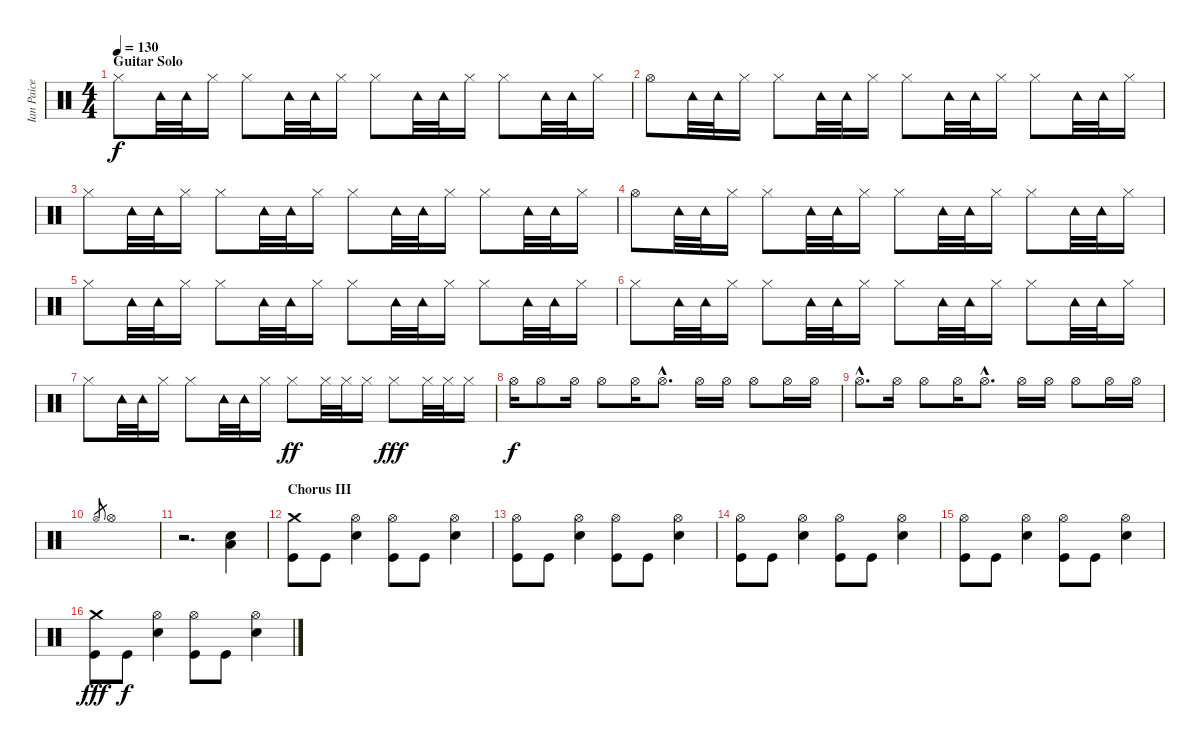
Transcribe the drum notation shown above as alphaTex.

\track ("Ian Paice - Drums" "Ian Paice ") {instrument percussion}
\staff {score}
\articulation defaults
\ts (4 4)
\section ("" "Guitar Solo")
\tempo 130
\clef neutral
\ks c "Hi-Hat (closed)".8{dy f} "Tambourine (hit)".32 "Tambourine (hit)".32 "Hi-Hat (closed)".16 "Hi-Hat (closed)".8 "Tambourine (hit)".32 "Tambourine (hit)".32 "Hi-Hat (closed)".16 "Hi-Hat (closed)".8 "Tambourine (hit)".32 "Tambourine (hit)".32 "Hi-Hat (closed)".16 "Hi-Hat (closed)".8 "Tambourine (hit)".32 "Tambourine (hit)".32 "Hi-Hat (closed)".16
|
"Hi-Hat (open)".8 "Tambourine (hit)".32 "Tambourine (hit)".32 "Hi-Hat (closed)".16 "Hi-Hat (closed)".8 "Tambourine (hit)".32 "Tambourine (hit)".32 "Hi-Hat (closed)".16 "Hi-Hat (closed)".8 "Tambourine (hit)".32 "Tambourine (hit)".32 "Hi-Hat (closed)".16 "Hi-Hat (closed)".8 "Tambourine (hit)".32 "Tambourine (hit)".32 "Hi-Hat (closed)".16 |
"Hi-Hat (closed)".8 "Tambourine (hit)".32 "Tambourine (hit)".32 "Hi-Hat (closed)".16 "Hi-Hat (closed)".8 "Tambourine (hit)".32 "Tambourine (hit)".32 "Hi-Hat (closed)".16 "Hi-Hat (closed)".8 "Tambourine (hit)".32 "Tambourine (hit)".32 "Hi-Hat (closed)".16 "Hi-Hat (closed)".8 "Tambourine (hit)".32 "Tambourine (hit)".32 "Hi-Hat (closed)".16 |
"Hi-Hat (open)".8 "Tambourine (hit)".32 "Tambourine (hit)".32 "Hi-Hat (closed)".16 "Hi-Hat (closed)".8 "Tambourine (hit)".32 "Tambourine (hit)".32 "Hi-Hat (closed)".16 "Hi-Hat (closed)".8 "Tambourine (hit)".32 "Tambourine (hit)".32 "Hi-Hat (closed)".16 "Hi-Hat (closed)".8 "Tambourine (hit)".32 "Tambourine (hit)".32 "Hi-Hat (closed)".16 |
"Hi-Hat (closed)".8 "Tambourine (hit)".32 "Tambourine (hit)".32 "Hi-Hat (closed)".16 "Hi-Hat (closed)".8 "Tambourine (hit)".32 "Tambourine (hit)".32 "Hi-Hat (closed)".16 "Hi-Hat (closed)".8 "Tambourine (hit)".32 "Tambourine (hit)".32 "Hi-Hat (closed)".16 "Hi-Hat (closed)".8 "Tambourine (hit)".32 "Tambourine (hit)".32 "Hi-Hat (closed)".16 |
"Hi-Hat (closed)".8 "Tambourine (hit)".32 "Tambourine (hit)".32 "Hi-Hat (closed)".16 "Hi-Hat (closed)".8 "Tambourine (hit)".32 "Tambourine (hit)".32 "Hi-Hat (closed)".16 "Hi-Hat (closed)".8 "Tambourine (hit)".32 "Tambourine (hit)".32 "Hi-Hat (closed)".16 "Hi-Hat (closed)".8 "Tambourine (hit)".32 "Tambourine (hit)".32 "Hi-Hat (closed)".16 |
"Hi-Hat (closed)".8 "Tambourine (hit)".32 "Tambourine (hit)".32 "Hi-Hat (closed)".16 "Hi-Hat (closed)".8 "Tambourine (hit)".32 "Tambourine (hit)".32 "Hi-Hat (closed)".16 "Hi-Hat (closed)".8{dy ff} "Hi-Hat (closed)".32 "Hi-Hat (closed)".32 "Hi-Hat (closed)".16 "Hi-Hat (closed)".8{dy fff} "Hi-Hat (closed)".32 "Hi-Hat (closed)".32 "Hi-Hat (closed)".16 |
"Hi-Hat (open)".16{dy f} "Hi-Hat (open)".8 "Hi-Hat (open)".16 "Hi-Hat (open)".8 "Hi-Hat (open)".16 "Hi-Hat (open)"{hac}.8{d} "Hi-Hat (open)".16 "Hi-Hat (open)".16 "Hi-Hat (open)".8 "Hi-Hat (open)".16 "Hi-Hat (open)".16 |
"Hi-Hat (open)"{hac}.8{d} "Hi-Hat (open)".16 "Hi-Hat (open)".8 "Hi-Hat (open)".16 "Hi-Hat (open)"{hac}.8{d} "Hi-Hat (open)".16 "Hi-Hat (open)".16 "Hi-Hat (open)".8 "Hi-Hat (open)".16 "Hi-Hat (open)".16 |
"Hi-Hat (open)".8{gr} "Hi-Hat (open)".1 |
r.2{d} ("Low Tom (hit)" "Snare (hit) 2").4 |
\section ("" "Chorus III")
("Crash medium (hit)" "Kick (hit)").8 "Kick (hit)".8 ("Hi-Hat (open)" "Snare (hit) 2").4 ("Hi-Hat (open)" "Kick (hit)").8 "Kick (hit)".8 ("Hi-Hat (open)" "Snare (hit) 2").4 |
("Hi-Hat (open)" "Kick (hit)").8 "Kick (hit)".8 ("Hi-Hat (open)" "Snare (hit) 2").4 ("Hi-Hat (open)" "Kick (hit)").8 "Kick (hit)".8 ("Hi-Hat (open)" "Snare (hit) 2").4 |
("Hi-Hat (open)" "Kick (hit)").8 "Kick (hit)".8 ("Hi-Hat (open)" "Snare (hit) 2").4 ("Hi-Hat (open)" "Kick (hit)").8 "Kick (hit)".8 ("Hi-Hat (open)" "Snare (hit) 2").4 |
("Hi-Hat (open)" "Kick (hit)").8 "Kick (hit)".8 ("Hi-Hat (open)" "Snare (hit) 2").4 ("Hi-Hat (open)" "Kick (hit)").8 "Kick (hit)".8 ("Hi-Hat (open)" "Snare (hit) 2").4 |
("Crash medium (hit)" "Kick (hit)").8{dy fff} "Kick (hit)".8{dy f} ("Hi-Hat (open)" "Snare (hit) 2").4 ("Hi-Hat (open)" "Kick (hit)").8 "Kick (hit)".8 ("Hi-Hat (open)" "Snare (hit) 2").4
